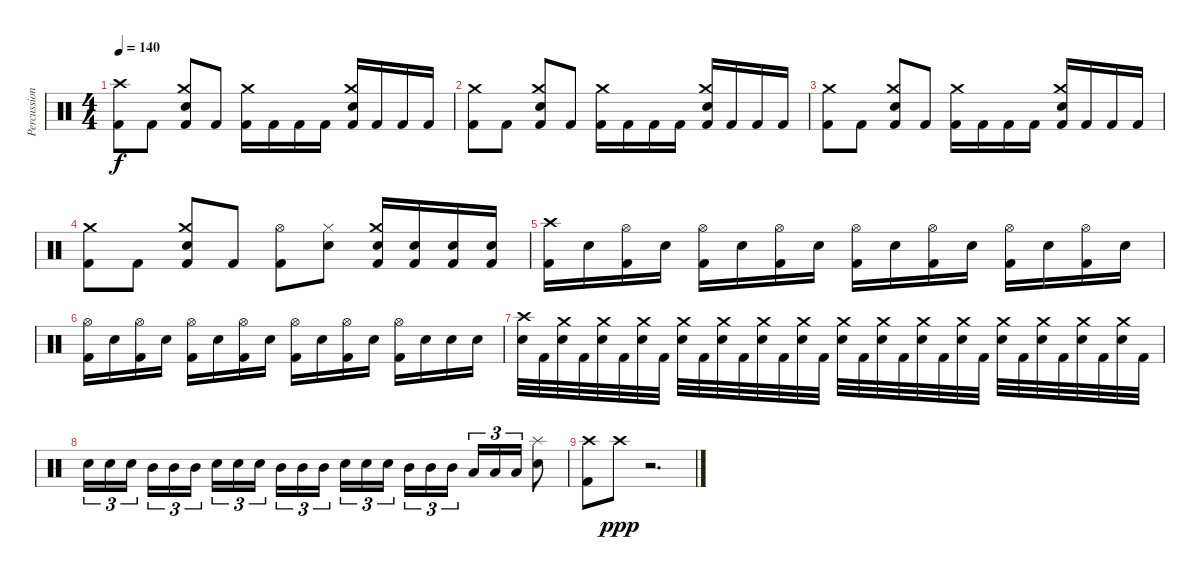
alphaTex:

\track ("Percussions" "Percussion") {instrument percussion}
\staff {score}
\articulation defaults
\ts (4 4)
\tempo 140
\clef neutral
\ks c
("Crash high (hit)" "Kick (hit) 2").8{dy f} "Kick (hit) 2".8 ("Crash medium (hit)" "Snare (hit) 2" "Kick (hit) 2").8 "Kick (hit) 2".8 ("Crash medium (hit)" "Kick (hit) 2").16 "Kick (hit) 2".16 "Kick (hit) 2".16 "Kick (hit) 2".16 ("Crash medium (hit)" "Snare (hit) 2" "Kick (hit) 2").16 "Kick (hit) 2".16 "Kick (hit) 2".16 "Kick (hit) 2".16 |
("Crash medium (hit)" "Kick (hit) 2").8 "Kick (hit) 2".8 ("Crash medium (hit)" "Snare (hit) 2" "Kick (hit) 2").8 "Kick (hit) 2".8 ("Crash medium (hit)" "Kick (hit) 2").16 "Kick (hit) 2".16 "Kick (hit) 2".16 "Kick (hit) 2".16 ("Crash medium (hit)" "Snare (hit) 2" "Kick (hit) 2").16 "Kick (hit) 2".16 "Kick (hit) 2".16 "Kick (hit) 2".16 |
("Crash medium (hit)" "Kick (hit) 2").8 "Kick (hit) 2".8 ("Crash medium (hit)" "Snare (hit) 2" "Kick (hit) 2").8 "Kick (hit) 2".8 ("Crash medium (hit)" "Kick (hit) 2").16 "Kick (hit) 2".16 "Kick (hit) 2".16 "Kick (hit) 2".16 ("Crash medium (hit)" "Snare (hit) 2" "Kick (hit) 2").16 "Kick (hit) 2".16 "Kick (hit) 2".16 "Kick (hit) 2".16 |
("Crash medium (hit)" "Kick (hit) 2").8 "Kick (hit) 2".8 ("Crash medium (hit)" "Snare (hit) 2" "Kick (hit) 2").8 "Kick (hit) 2".8 ("Hi-Hat (open)" "Kick (hit) 2").8 ("Hi-Hat (closed)" "Snare (hit) 2").8 ("Crash medium (hit)" "Snare (hit) 2" "Kick (hit) 2").16 ("Snare (hit) 2" "Kick (hit) 2").16 ("Snare (hit) 2" "Kick (hit) 2").16 ("Snare (hit) 2" "Kick (hit) 2").16 |
("Crash high (hit)" "Kick (hit) 2").16 "Snare (hit) 2".16 ("Hi-Hat (open)" "Kick (hit) 2").16 "Snare (hit) 2".16 ("Hi-Hat (open)" "Kick (hit) 2").16 "Snare (hit) 2".16 ("Hi-Hat (open)" "Kick (hit) 2").16 "Snare (hit) 2".16 ("Hi-Hat (open)" "Kick (hit) 2").16 "Snare (hit) 2".16 ("Hi-Hat (open)" "Kick (hit) 2").16 "Snare (hit) 2".16 ("Hi-Hat (open)" "Kick (hit) 2").16 "Snare (hit) 2".16 ("Hi-Hat (open)" "Kick (hit) 2").16 "Snare (hit) 2".16 |
("Hi-Hat (open)" "Kick (hit) 2").16 "Snare (hit) 2".16 ("Hi-Hat (open)" "Kick (hit) 2").16 "Snare (hit) 2".16 ("Hi-Hat (open)" "Kick (hit) 2").16 "Snare (hit) 2".16 ("Hi-Hat (open)" "Kick (hit) 2").16 "Snare (hit) 2".16 ("Hi-Hat (open)" "Kick (hit) 2").16 "Snare (hit) 2".16 ("Hi-Hat (open)" "Kick (hit) 2").16 "Snare (hit) 2".16 ("Hi-Hat (open)" "Kick (hit) 2").16 "Snare (hit) 2".16 "Snare (hit) 2".16 "Snare (hit) 2".16 |
("Crash high (hit)" "Snare (hit) 2").32 "Kick (hit) 2".32 ("Crash medium (hit)" "Snare (hit) 2").32 "Kick (hit) 2".32 ("Crash medium (hit)" "Snare (hit) 2").32 "Kick (hit) 2".32 ("Crash medium (hit)" "Snare (hit) 2").32 "Kick (hit) 2".32 ("Crash medium (hit)" "Snare (hit) 2").32 "Kick (hit) 2".32 ("Crash medium (hit)" "Snare (hit) 2").32 "Kick (hit) 2".32 ("Crash medium (hit)" "Snare (hit) 2").32 "Kick (hit) 2".32 ("Crash medium (hit)" "Snare (hit) 2").32 "Kick (hit) 2".32 ("Crash medium (hit)" "Snare (hit) 2").32 "Kick (hit) 2".32 ("Crash medium (hit)" "Snare (hit) 2").32 "Kick (hit) 2".32 ("Crash medium (hit)" "Snare (hit) 2").32 "Kick (hit) 2".32 ("Crash medium (hit)" "Snare (hit) 2").32 "Kick (hit) 2".32 ("Crash medium (hit)" "Snare (hit) 2").32 "Kick (hit) 2".32 ("Crash medium (hit)" "Snare (hit) 2").32 "Kick (hit) 2".32 ("Crash medium (hit)" "Snare (hit) 2").32 "Kick (hit) 2".32 ("Crash medium (hit)" "Snare (hit) 2").32 "Kick (hit) 2".32 |
"Snare (hit) 2".16{tu (3 2)} "Snare (hit) 2".16{tu (3 2)} "Snare (hit) 2".16{tu (3 2)} "Mid Tom (hit)".16{tu (3 2)} "Mid Tom (hit)".16{tu (3 2)} "Mid Tom (hit)".16{tu (3 2)} "Snare (hit) 2".16{tu (3 2)} "Snare (hit) 2".16{tu (3 2)} "Snare (hit) 2".16{tu (3 2)} "Mid Tom (hit)".16{tu (3 2)} "Mid Tom (hit)".16{tu (3 2)} "Mid Tom (hit)".16{tu (3 2)} "Snare (hit) 2".16{tu (3 2)} "Snare (hit) 2".16{tu (3 2)} "Snare (hit) 2".16{tu (3 2)} "Mid Tom (hit)".16{tu (3 2)} "Mid Tom (hit)".16{tu (3 2)} "Mid Tom (hit)".16{tu (3 2)} "Low Tom (hit)".16{tu (3 2)} "Low Tom (hit)".16{tu (3 2)} "Low Tom (hit)".16{tu (3 2)} ("Splash (hit)" "Snare (hit) 2").8 |
("Crash high (hit)" "Kick (hit) 2").8 "Crash high (hit)".8{dy ppp} r.2{d}
